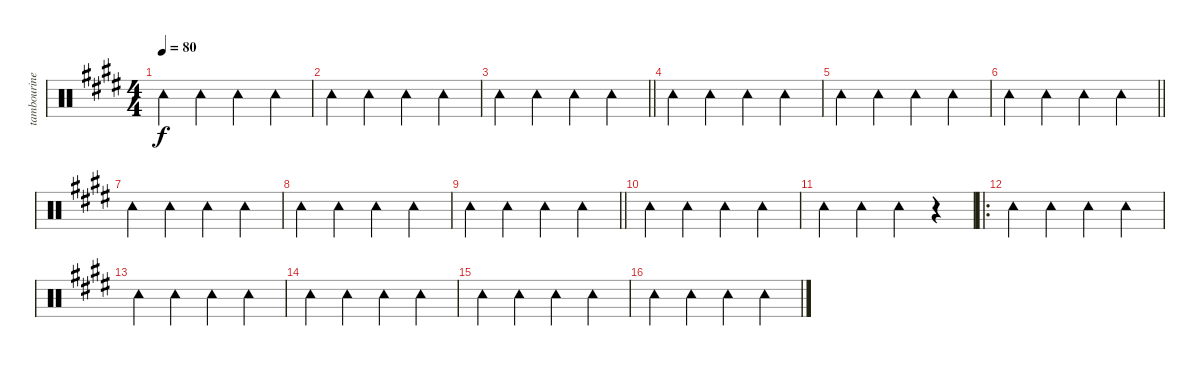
\track ("tambourine" "tambourine") {instrument percussion}
\staff {score}
\articulation defaults
\ts (4 4)
\tempo 80
\clef neutral
\ks e "Tambourine (hit)".4{dy f} "Tambourine (hit)".4 "Tambourine (hit)".4 "Tambourine (hit)".4
|
"Tambourine (hit)".4 "Tambourine (hit)".4 "Tambourine (hit)".4 "Tambourine (hit)".4 |
\barLineRight lightlight "Tambourine (hit)".4 "Tambourine (hit)".4 "Tambourine (hit)".4 "Tambourine (hit)".4
|
"Tambourine (hit)".4 "Tambourine (hit)".4 "Tambourine (hit)".4 "Tambourine (hit)".4 |
"Tambourine (hit)".4 "Tambourine (hit)".4 "Tambourine (hit)".4 "Tambourine (hit)".4 |
\barLineRight lightlight "Tambourine (hit)".4 "Tambourine (hit)".4 "Tambourine (hit)".4 "Tambourine (hit)".4
|
"Tambourine (hit)".4 "Tambourine (hit)".4 "Tambourine (hit)".4 "Tambourine (hit)".4 |
"Tambourine (hit)".4 "Tambourine (hit)".4 "Tambourine (hit)".4 "Tambourine (hit)".4 |
\barLineRight lightlight "Tambourine (hit)".4 "Tambourine (hit)".4 "Tambourine (hit)".4 "Tambourine (hit)".4
|
"Tambourine (hit)".4 "Tambourine (hit)".4 "Tambourine (hit)".4 "Tambourine (hit)".4 |
"Tambourine (hit)".4 "Tambourine (hit)".4 "Tambourine (hit)".4 r.4 |
\ro "Tambourine (hit)".4 "Tambourine (hit)".4 "Tambourine (hit)".4 "Tambourine (hit)".4
|
"Tambourine (hit)".4 "Tambourine (hit)".4 "Tambourine (hit)".4 "Tambourine (hit)".4 |
"Tambourine (hit)".4 "Tambourine (hit)".4 "Tambourine (hit)".4 "Tambourine (hit)".4 |
"Tambourine (hit)".4 "Tambourine (hit)".4 "Tambourine (hit)".4 "Tambourine (hit)".4 |
"Tambourine (hit)".4 "Tambourine (hit)".4 "Tambourine (hit)".4 "Tambourine (hit)".4
